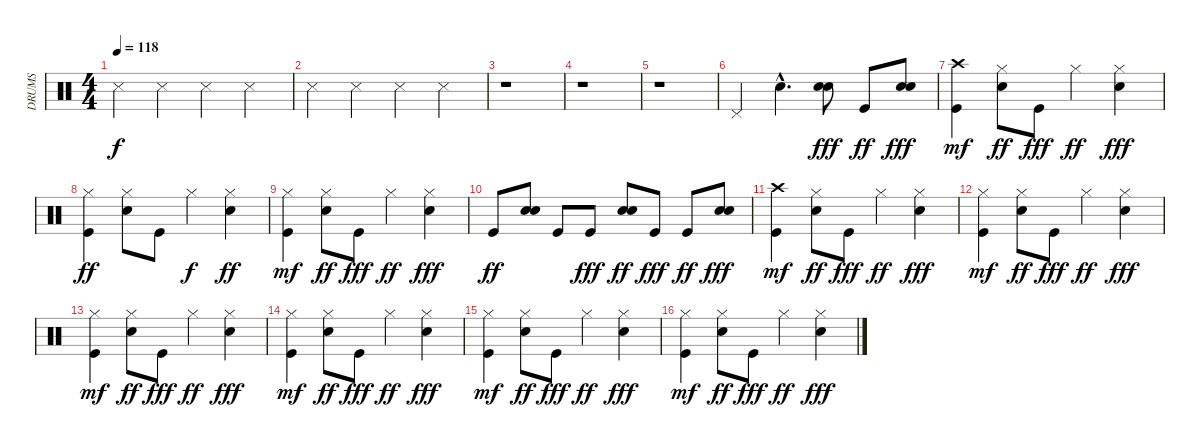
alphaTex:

\track ("DRUMS" "DRUMS") {instrument percussion}
\staff {score}
\articulation defaults
\ts (4 4)
\tempo 118
\clef neutral
\ks c "Metronome (hit)".4{dy f} "Metronome (hit)".4 "Metronome (hit)".4 "Metronome (hit)".4
|
"Metronome (hit)".4 "Metronome (hit)".4 "Metronome (hit)".4 "Metronome (hit)".4 |
r.1 |
r.1 |
r.1 |
"Pedal Hi-Hat (hit)".4 "Electric Snare (hit)"{hac}.4{d} ("Electric Snare (hit)" "Electric Snare (hit)").8{dy fff} "Kick (hit)".8{dy ff} ("Electric Snare (hit)" "Electric Snare (hit)").8{dy fff} |
("Kick (hit)" "Crash high (hit)").4{dy mf} ("Electric Snare (hit)" "Hi-Hat (closed)").8{dy ff} "Kick (hit)".8{dy fff} "Hi-Hat (closed)".4{dy ff} ("Electric Snare (hit)" "Hi-Hat (closed)").4{dy fff} |
("Kick (hit)" "Hi-Hat (closed)").4{dy ff} ("Electric Snare (hit)" "Hi-Hat (closed)").8 "Kick (hit)".8 "Hi-Hat (closed)".4{dy f} ("Electric Snare (hit)" "Hi-Hat (closed)").4{dy ff} |
("Kick (hit)" "Hi-Hat (closed)").4{dy mf} ("Electric Snare (hit)" "Hi-Hat (closed)").8{dy ff} "Kick (hit)".8{dy fff} "Hi-Hat (closed)".4{dy ff} ("Electric Snare (hit)" "Hi-Hat (closed)").4{dy fff} |
"Kick (hit)".8{dy ff} ("Electric Snare (hit)" "Electric Snare (hit)").8 "Kick (hit)".8 "Kick (hit)".8{dy fff} ("Electric Snare (hit)" "Electric Snare (hit)").8{dy ff} "Kick (hit)".8{dy fff} "Kick (hit)".8{dy ff} ("Electric Snare (hit)" "Electric Snare (hit)").8{dy fff} |
("Kick (hit)" "Crash high (hit)").4{dy mf} ("Electric Snare (hit)" "Hi-Hat (closed)").8{dy ff} "Kick (hit)".8{dy fff} "Hi-Hat (closed)".4{dy ff} ("Electric Snare (hit)" "Hi-Hat (closed)").4{dy fff} |
("Kick (hit)" "Hi-Hat (closed)").4{dy mf} ("Electric Snare (hit)" "Hi-Hat (closed)").8{dy ff} "Kick (hit)".8{dy fff} "Hi-Hat (closed)".4{dy ff} ("Electric Snare (hit)" "Hi-Hat (closed)").4{dy fff} |
("Kick (hit)" "Hi-Hat (closed)").4{dy mf} ("Electric Snare (hit)" "Hi-Hat (closed)").8{dy ff} "Kick (hit)".8{dy fff} "Hi-Hat (closed)".4{dy ff} ("Electric Snare (hit)" "Hi-Hat (closed)").4{dy fff} |
("Kick (hit)" "Hi-Hat (closed)").4{dy mf} ("Electric Snare (hit)" "Hi-Hat (closed)").8{dy ff} "Kick (hit)".8{dy fff} "Hi-Hat (closed)".4{dy ff} ("Electric Snare (hit)" "Hi-Hat (closed)").4{dy fff} |
("Kick (hit)" "Hi-Hat (closed)").4{dy mf} ("Electric Snare (hit)" "Hi-Hat (closed)").8{dy ff} "Kick (hit)".8{dy fff} "Hi-Hat (closed)".4{dy ff} ("Electric Snare (hit)" "Hi-Hat (closed)").4{dy fff} |
("Kick (hit)" "Hi-Hat (closed)").4{dy mf} ("Electric Snare (hit)" "Hi-Hat (closed)").8{dy ff} "Kick (hit)".8{dy fff} "Hi-Hat (closed)".4{dy ff} ("Electric Snare (hit)" "Hi-Hat (closed)").4{dy fff}
